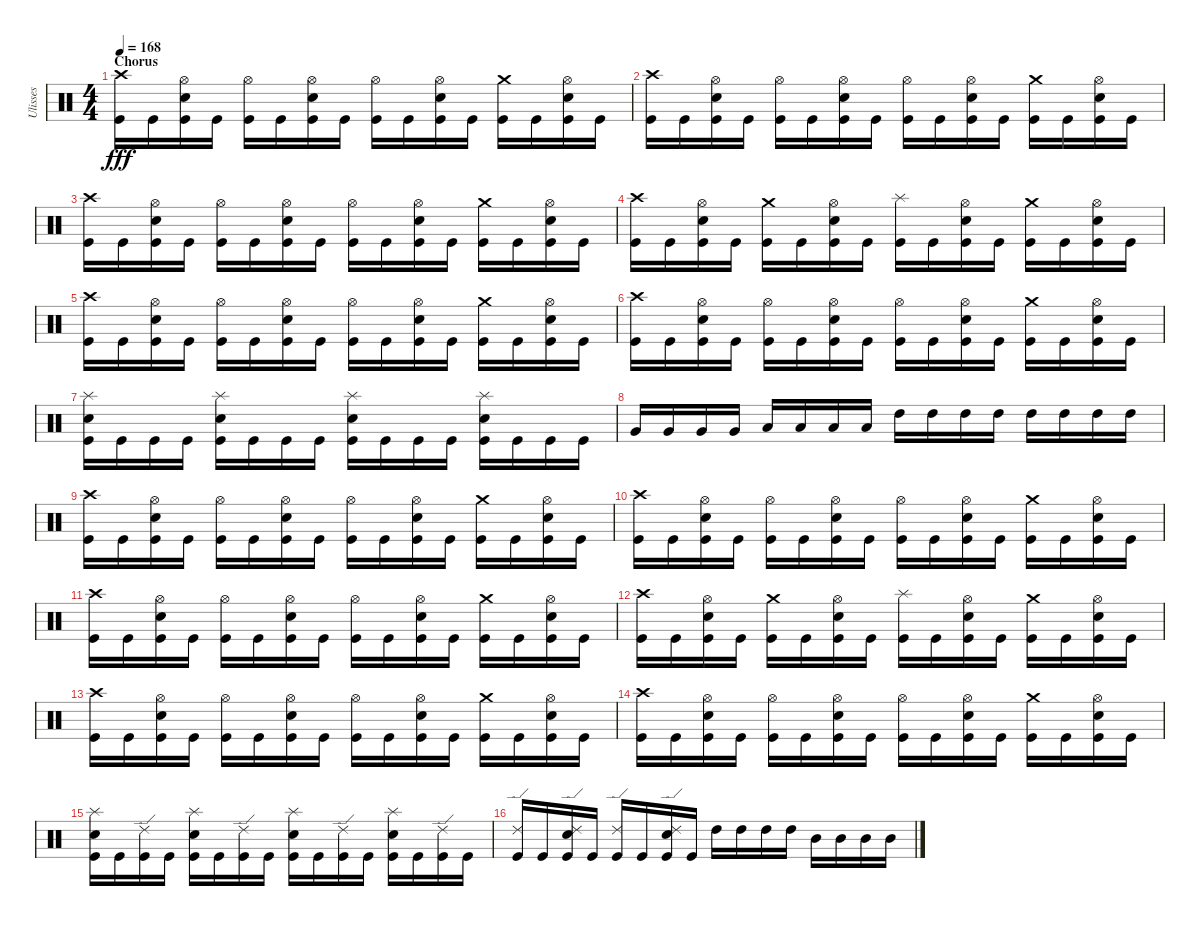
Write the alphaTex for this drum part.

\track ("Ulisses" "Ulisses") {instrument percussion}
\staff {score}
\articulation defaults
\ts (4 4)
\section ("" "Chorus")
\tempo 168
\clef neutral
\ks c
("Crash high (hit)" "Kick (hit)").16{dy fff} "Kick (hit)".16 ("Hi-Hat (open)" "Snare (hit) 2" "Kick (hit)").16 "Kick (hit)".16 ("Hi-Hat (open)" "Kick (hit)").16 "Kick (hit)".16 ("Hi-Hat (open)" "Snare (hit) 2" "Kick (hit)").16 "Kick (hit)".16 ("Hi-Hat (open)" "Kick (hit)").16 "Kick (hit)".16 ("Hi-Hat (open)" "Snare (hit) 2" "Kick (hit)").16 "Kick (hit)".16 ("Crash medium (hit)" "Kick (hit)").16 "Kick (hit)".16 ("Hi-Hat (open)" "Snare (hit) 2" "Kick (hit)").16 "Kick (hit)".16 |
("Crash high (hit)" "Kick (hit)").16 "Kick (hit)".16 ("Hi-Hat (open)" "Snare (hit) 2" "Kick (hit)").16 "Kick (hit)".16 ("Hi-Hat (open)" "Kick (hit)").16 "Kick (hit)".16 ("Hi-Hat (open)" "Snare (hit) 2" "Kick (hit)").16 "Kick (hit)".16 ("Hi-Hat (open)" "Kick (hit)").16 "Kick (hit)".16 ("Hi-Hat (open)" "Snare (hit) 2" "Kick (hit)").16 "Kick (hit)".16 ("Crash medium (hit)" "Kick (hit)").16 "Kick (hit)".16 ("Hi-Hat (open)" "Snare (hit) 2" "Kick (hit)").16 "Kick (hit)".16 |
("Crash high (hit)" "Kick (hit)").16 "Kick (hit)".16 ("Hi-Hat (open)" "Snare (hit) 2" "Kick (hit)").16 "Kick (hit)".16 ("Hi-Hat (open)" "Kick (hit)").16 "Kick (hit)".16 ("Hi-Hat (open)" "Snare (hit) 2" "Kick (hit)").16 "Kick (hit)".16 ("Hi-Hat (open)" "Kick (hit)").16 "Kick (hit)".16 ("Hi-Hat (open)" "Snare (hit) 2" "Kick (hit)").16 "Kick (hit)".16 ("Crash medium (hit)" "Kick (hit)").16 "Kick (hit)".16 ("Hi-Hat (open)" "Snare (hit) 2" "Kick (hit)").16 "Kick (hit)".16 |
("Crash high (hit)" "Kick (hit)").16 "Kick (hit)".16 ("Hi-Hat (open)" "Snare (hit) 2" "Kick (hit)").16 "Kick (hit)".16 ("Crash medium (hit)" "Kick (hit)").16 "Kick (hit)".16 ("Hi-Hat (open)" "Snare (hit) 2" "Kick (hit)").16 "Kick (hit)".16 ("Splash (hit)" "Kick (hit)").16 "Kick (hit)".16 ("Hi-Hat (open)" "Snare (hit) 2" "Kick (hit)").16 "Kick (hit)".16 ("Crash medium (hit)" "Kick (hit)").16 "Kick (hit)".16 ("Hi-Hat (open)" "Snare (hit) 2" "Kick (hit)").16 "Kick (hit)".16 |
("Crash high (hit)" "Kick (hit)").16 "Kick (hit)".16 ("Hi-Hat (open)" "Snare (hit) 2" "Kick (hit)").16 "Kick (hit)".16 ("Hi-Hat (open)" "Kick (hit)").16 "Kick (hit)".16 ("Hi-Hat (open)" "Snare (hit) 2" "Kick (hit)").16 "Kick (hit)".16 ("Hi-Hat (open)" "Kick (hit)").16 "Kick (hit)".16 ("Hi-Hat (open)" "Snare (hit) 2" "Kick (hit)").16 "Kick (hit)".16 ("Crash medium (hit)" "Kick (hit)").16 "Kick (hit)".16 ("Hi-Hat (open)" "Snare (hit) 2" "Kick (hit)").16 "Kick (hit)".16 |
("Crash high (hit)" "Kick (hit)").16 "Kick (hit)".16 ("Hi-Hat (open)" "Snare (hit) 2" "Kick (hit)").16 "Kick (hit)".16 ("Hi-Hat (open)" "Kick (hit)").16 "Kick (hit)".16 ("Hi-Hat (open)" "Snare (hit) 2" "Kick (hit)").16 "Kick (hit)".16 ("Hi-Hat (open)" "Kick (hit)").16 "Kick (hit)".16 ("Hi-Hat (open)" "Snare (hit) 2" "Kick (hit)").16 "Kick (hit)".16 ("Crash medium (hit)" "Kick (hit)").16 "Kick (hit)".16 ("Hi-Hat (open)" "Snare (hit) 2" "Kick (hit)").16 "Kick (hit)".16 |
("Splash (hit)" "Snare (hit) 2" "Kick (hit)").16 "Kick (hit)".16 "Kick (hit)".16 "Kick (hit)".16 ("Splash (hit)" "Snare (hit) 2" "Kick (hit)").16 "Kick (hit)".16 "Kick (hit)".16 "Kick (hit)".16 ("Splash (hit)" "Snare (hit) 2" "Kick (hit)").16 "Kick (hit)".16 "Kick (hit)".16 "Kick (hit)".16 ("Splash (hit)" "Snare (hit) 2" "Kick (hit)").16 "Kick (hit)".16 "Kick (hit)".16 "Kick (hit)".16 |
"Very Low Tom (hit)".16 "Very Low Tom (hit)".16 "Very Low Tom (hit)".16 "Very Low Tom (hit)".16 "Low Tom (hit)".16 "Low Tom (hit)".16 "Low Tom (hit)".16 "Low Tom (hit)".16 "High Tom (hit)".16 "High Tom (hit)".16 "High Tom (hit)".16 "High Tom (hit)".16 "High Tom (hit)".16 "High Tom (hit)".16 "High Tom (hit)".16 "High Tom (hit)".16 |
("Crash high (hit)" "Kick (hit)").16 "Kick (hit)".16 ("Hi-Hat (open)" "Snare (hit) 2" "Kick (hit)").16 "Kick (hit)".16 ("Hi-Hat (open)" "Kick (hit)").16 "Kick (hit)".16 ("Hi-Hat (open)" "Snare (hit) 2" "Kick (hit)").16 "Kick (hit)".16 ("Hi-Hat (open)" "Kick (hit)").16 "Kick (hit)".16 ("Hi-Hat (open)" "Snare (hit) 2" "Kick (hit)").16 "Kick (hit)".16 ("Crash medium (hit)" "Kick (hit)").16 "Kick (hit)".16 ("Hi-Hat (open)" "Snare (hit) 2" "Kick (hit)").16 "Kick (hit)".16 |
("Crash high (hit)" "Kick (hit)").16 "Kick (hit)".16 ("Hi-Hat (open)" "Snare (hit) 2" "Kick (hit)").16 "Kick (hit)".16 ("Hi-Hat (open)" "Kick (hit)").16 "Kick (hit)".16 ("Hi-Hat (open)" "Snare (hit) 2" "Kick (hit)").16 "Kick (hit)".16 ("Hi-Hat (open)" "Kick (hit)").16 "Kick (hit)".16 ("Hi-Hat (open)" "Snare (hit) 2" "Kick (hit)").16 "Kick (hit)".16 ("Crash medium (hit)" "Kick (hit)").16 "Kick (hit)".16 ("Hi-Hat (open)" "Snare (hit) 2" "Kick (hit)").16 "Kick (hit)".16 |
("Crash high (hit)" "Kick (hit)").16 "Kick (hit)".16 ("Hi-Hat (open)" "Snare (hit) 2" "Kick (hit)").16 "Kick (hit)".16 ("Hi-Hat (open)" "Kick (hit)").16 "Kick (hit)".16 ("Hi-Hat (open)" "Snare (hit) 2" "Kick (hit)").16 "Kick (hit)".16 ("Hi-Hat (open)" "Kick (hit)").16 "Kick (hit)".16 ("Hi-Hat (open)" "Snare (hit) 2" "Kick (hit)").16 "Kick (hit)".16 ("Crash medium (hit)" "Kick (hit)").16 "Kick (hit)".16 ("Hi-Hat (open)" "Snare (hit) 2" "Kick (hit)").16 "Kick (hit)".16 |
("Crash high (hit)" "Kick (hit)").16 "Kick (hit)".16 ("Hi-Hat (open)" "Snare (hit) 2" "Kick (hit)").16 "Kick (hit)".16 ("Crash medium (hit)" "Kick (hit)").16 "Kick (hit)".16 ("Hi-Hat (open)" "Snare (hit) 2" "Kick (hit)").16 "Kick (hit)".16 ("Splash (hit)" "Kick (hit)").16 "Kick (hit)".16 ("Hi-Hat (open)" "Snare (hit) 2" "Kick (hit)").16 "Kick (hit)".16 ("Crash medium (hit)" "Kick (hit)").16 "Kick (hit)".16 ("Hi-Hat (open)" "Snare (hit) 2" "Kick (hit)").16 "Kick (hit)".16 |
("Crash high (hit)" "Kick (hit)").16 "Kick (hit)".16 ("Hi-Hat (open)" "Snare (hit) 2" "Kick (hit)").16 "Kick (hit)".16 ("Hi-Hat (open)" "Kick (hit)").16 "Kick (hit)".16 ("Hi-Hat (open)" "Snare (hit) 2" "Kick (hit)").16 "Kick (hit)".16 ("Hi-Hat (open)" "Kick (hit)").16 "Kick (hit)".16 ("Hi-Hat (open)" "Snare (hit) 2" "Kick (hit)").16 "Kick (hit)".16 ("Crash medium (hit)" "Kick (hit)").16 "Kick (hit)".16 ("Hi-Hat (open)" "Snare (hit) 2" "Kick (hit)").16 "Kick (hit)".16 |
("Crash high (hit)" "Kick (hit)").16 "Kick (hit)".16 ("Hi-Hat (open)" "Snare (hit) 2" "Kick (hit)").16 "Kick (hit)".16 ("Hi-Hat (open)" "Kick (hit)").16 "Kick (hit)".16 ("Hi-Hat (open)" "Snare (hit) 2" "Kick (hit)").16 "Kick (hit)".16 ("Hi-Hat (open)" "Kick (hit)").16 "Kick (hit)".16 ("Hi-Hat (open)" "Snare (hit) 2" "Kick (hit)").16 "Kick (hit)".16 ("Crash medium (hit)" "Kick (hit)").16 "Kick (hit)".16 ("Hi-Hat (open)" "Snare (hit) 2" "Kick (hit)").16 "Kick (hit)".16 |
("Splash (hit)" "Snare (hit) 2" "Kick (hit)").16 "Kick (hit)".16 ("Ride (edge) 2" "Kick (hit)").16 "Kick (hit)".16 ("Splash (hit)" "Snare (hit) 2" "Kick (hit)").16 "Kick (hit)".16 ("Ride (edge) 2" "Kick (hit)").16 "Kick (hit)".16 ("Splash (hit)" "Snare (hit) 2" "Kick (hit)").16 "Kick (hit)".16 ("Ride (edge) 2" "Kick (hit)").16 "Kick (hit)".16 ("Splash (hit)" "Snare (hit) 2" "Kick (hit)").16 "Kick (hit)".16 ("Ride (edge) 2" "Kick (hit)").16 "Kick (hit)".16 |
("Ride (edge) 2" "Kick (hit)").16 "Kick (hit)".16 ("Ride (edge) 2" "Snare (hit) 2" "Kick (hit)").16 "Kick (hit)".16 ("Ride (edge) 2" "Kick (hit)").16 "Kick (hit)".16 ("Ride (edge) 2" "Snare (hit) 2" "Kick (hit)").16 "Kick (hit)".16 "High Tom (hit)".16 "High Tom (hit)".16 "High Tom (hit)".16 "High Tom (hit)".16 "Mid Tom (hit)".16 "Mid Tom (hit)".16 "Mid Tom (hit)".16 "Mid Tom (hit)".16
